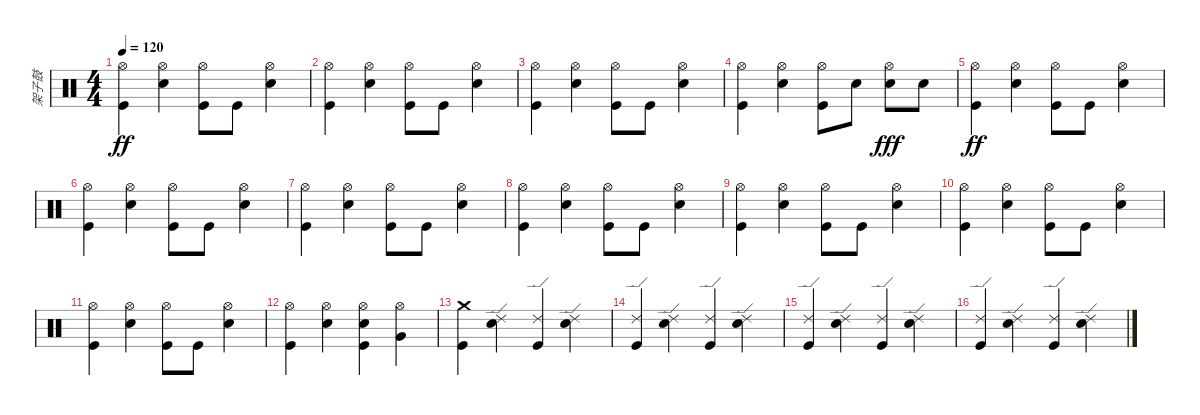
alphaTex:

\track ("架子鼓" "架子鼓") {instrument percussion}
\staff {score}
\articulation defaults
\ts (4 4)
\tempo 120
\clef neutral
\ks c
("Hi-Hat (open)" "Kick (hit)").4{dy ff} ("Hi-Hat (open)" "Snare (hit) 2").4 ("Hi-Hat (open)" "Kick (hit)").8 "Kick (hit)".8 ("Hi-Hat (open)" "Snare (hit) 2").4 |
("Hi-Hat (open)" "Kick (hit)").4 ("Hi-Hat (open)" "Snare (hit) 2").4 ("Hi-Hat (open)" "Kick (hit)").8 "Kick (hit)".8 ("Hi-Hat (open)" "Snare (hit) 2").4 |
("Hi-Hat (open)" "Kick (hit)").4 ("Hi-Hat (open)" "Snare (hit) 2").4 ("Hi-Hat (open)" "Kick (hit)").8 "Kick (hit)".8 ("Hi-Hat (open)" "Snare (hit) 2").4 |
("Hi-Hat (open)" "Kick (hit)").4 ("Hi-Hat (open)" "Snare (hit) 2").4 ("Hi-Hat (open)" "Kick (hit)").8 "Snare (hit) 2".8 ("Hi-Hat (open)" "Snare (hit) 2").8{dy fff} "Snare (hit) 2".8 |
("Hi-Hat (open)" "Kick (hit)").4{dy ff} ("Hi-Hat (open)" "Snare (hit) 2").4 ("Hi-Hat (open)" "Kick (hit)").8 "Kick (hit)".8 ("Hi-Hat (open)" "Snare (hit) 2").4 |
("Hi-Hat (open)" "Kick (hit)").4 ("Hi-Hat (open)" "Snare (hit) 2").4 ("Hi-Hat (open)" "Kick (hit)").8 "Kick (hit)".8 ("Hi-Hat (open)" "Snare (hit) 2").4 |
("Hi-Hat (open)" "Kick (hit)").4 ("Hi-Hat (open)" "Snare (hit) 2").4 ("Hi-Hat (open)" "Kick (hit)").8 "Kick (hit)".8 ("Hi-Hat (open)" "Snare (hit) 2").4 |
("Hi-Hat (open)" "Kick (hit)").4 ("Hi-Hat (open)" "Snare (hit) 2").4 ("Hi-Hat (open)" "Kick (hit)").8 "Kick (hit)".8 ("Hi-Hat (open)" "Snare (hit) 2").4 |
("Hi-Hat (open)" "Kick (hit)").4 ("Hi-Hat (open)" "Snare (hit) 2").4 ("Hi-Hat (open)" "Kick (hit)").8 "Kick (hit)".8 ("Hi-Hat (open)" "Snare (hit) 2").4 |
("Hi-Hat (open)" "Kick (hit)").4 ("Hi-Hat (open)" "Snare (hit) 2").4 ("Hi-Hat (open)" "Kick (hit)").8 "Kick (hit)".8 ("Hi-Hat (open)" "Snare (hit) 2").4 |
("Hi-Hat (open)" "Kick (hit)").4 ("Hi-Hat (open)" "Snare (hit) 2").4 ("Hi-Hat (open)" "Kick (hit)").8 "Kick (hit)".8 ("Hi-Hat (open)" "Snare (hit) 2").4 |
("Hi-Hat (open)" "Kick (hit)").4 ("Hi-Hat (open)" "Snare (hit) 2").4 ("Hi-Hat (open)" "Snare (hit) 2" "Kick (hit)").4 ("Hi-Hat (open)" "Very Low Tom (hit)").4 |
("Crash medium (hit)" "Kick (hit)").4 ("Ride (edge) 2" "Snare (hit) 2").4 ("Ride (edge) 2" "Kick (hit)").4 ("Ride (edge) 2" "Snare (hit) 2").4 |
("Ride (edge) 2" "Kick (hit)").4 ("Ride (edge) 2" "Snare (hit) 2").4 ("Ride (edge) 2" "Kick (hit)").4 ("Ride (edge) 2" "Snare (hit) 2").4 |
("Ride (edge) 2" "Kick (hit)").4 ("Ride (edge) 2" "Snare (hit) 2").4 ("Ride (edge) 2" "Kick (hit)").4 ("Ride (edge) 2" "Snare (hit) 2").4 |
("Ride (edge) 2" "Kick (hit)").4 ("Ride (edge) 2" "Snare (hit) 2").4 ("Ride (edge) 2" "Kick (hit)").4 ("Ride (edge) 2" "Snare (hit) 2").4
